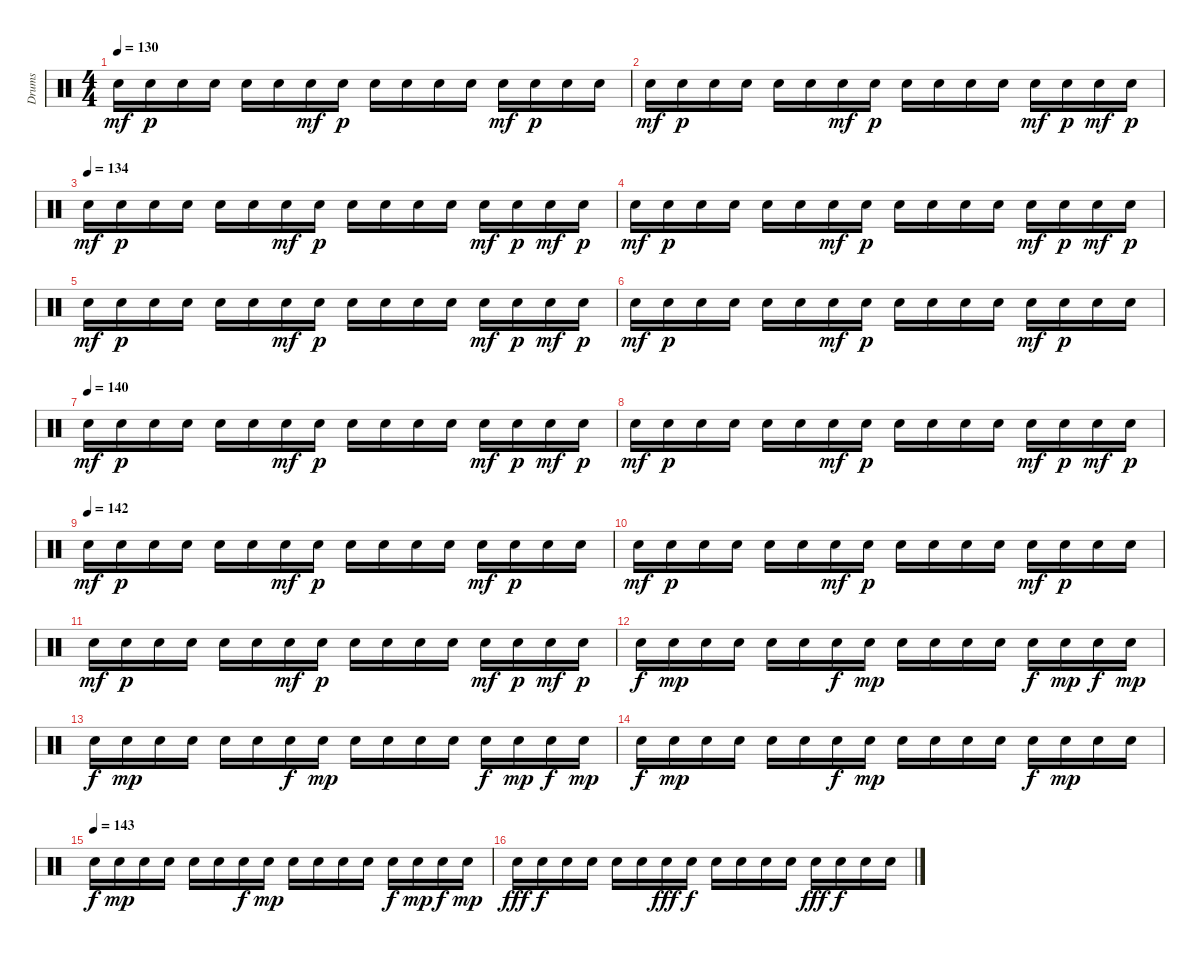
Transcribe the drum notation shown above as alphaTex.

\track ("Drums" "Drums") {instrument percussion}
\staff {score}
\articulation defaults
\ts (4 4)
\tempo 130
\clef neutral
\ks c "Snare (hit) 2".16{dy mf} "Snare (hit) 2".16{dy p} "Snare (hit) 2".16 "Snare (hit) 2".16 "Snare (hit) 2".16 "Snare (hit) 2".16 "Snare (hit) 2".16{dy mf} "Snare (hit) 2".16{dy p} "Snare (hit) 2".16 "Snare (hit) 2".16 "Snare (hit) 2".16 "Snare (hit) 2".16 "Snare (hit) 2".16{dy mf} "Snare (hit) 2".16{dy p} "Snare (hit) 2".16 "Snare (hit) 2".16
|
"Snare (hit) 2".16{dy mf} "Snare (hit) 2".16{dy p} "Snare (hit) 2".16 "Snare (hit) 2".16 "Snare (hit) 2".16 "Snare (hit) 2".16 "Snare (hit) 2".16{dy mf} "Snare (hit) 2".16{dy p} "Snare (hit) 2".16 "Snare (hit) 2".16 "Snare (hit) 2".16 "Snare (hit) 2".16 "Snare (hit) 2".16{dy mf} "Snare (hit) 2".16{dy p} "Snare (hit) 2".16{dy mf} "Snare (hit) 2".16{dy p} |
\tempo (134)
"Snare (hit) 2".16{dy mf} "Snare (hit) 2".16{dy p} "Snare (hit) 2".16 "Snare (hit) 2".16 "Snare (hit) 2".16 "Snare (hit) 2".16 "Snare (hit) 2".16{dy mf} "Snare (hit) 2".16{dy p} "Snare (hit) 2".16 "Snare (hit) 2".16 "Snare (hit) 2".16 "Snare (hit) 2".16 "Snare (hit) 2".16{dy mf} "Snare (hit) 2".16{dy p} "Snare (hit) 2".16{dy mf} "Snare (hit) 2".16{dy p} |
"Snare (hit) 2".16{dy mf} "Snare (hit) 2".16{dy p} "Snare (hit) 2".16 "Snare (hit) 2".16 "Snare (hit) 2".16 "Snare (hit) 2".16 "Snare (hit) 2".16{dy mf} "Snare (hit) 2".16{dy p} "Snare (hit) 2".16 "Snare (hit) 2".16 "Snare (hit) 2".16 "Snare (hit) 2".16 "Snare (hit) 2".16{dy mf} "Snare (hit) 2".16{dy p} "Snare (hit) 2".16{dy mf} "Snare (hit) 2".16{dy p} |
"Snare (hit) 2".16{dy mf} "Snare (hit) 2".16{dy p} "Snare (hit) 2".16 "Snare (hit) 2".16 "Snare (hit) 2".16 "Snare (hit) 2".16 "Snare (hit) 2".16{dy mf} "Snare (hit) 2".16{dy p} "Snare (hit) 2".16 "Snare (hit) 2".16 "Snare (hit) 2".16 "Snare (hit) 2".16 "Snare (hit) 2".16{dy mf} "Snare (hit) 2".16{dy p} "Snare (hit) 2".16{dy mf} "Snare (hit) 2".16{dy p} |
"Snare (hit) 2".16{dy mf} "Snare (hit) 2".16{dy p} "Snare (hit) 2".16 "Snare (hit) 2".16 "Snare (hit) 2".16 "Snare (hit) 2".16 "Snare (hit) 2".16{dy mf} "Snare (hit) 2".16{dy p} "Snare (hit) 2".16 "Snare (hit) 2".16 "Snare (hit) 2".16 "Snare (hit) 2".16 "Snare (hit) 2".16{dy mf} "Snare (hit) 2".16{dy p} "Snare (hit) 2".16 "Snare (hit) 2".16 |
\tempo (140)
"Snare (hit) 2".16{dy mf} "Snare (hit) 2".16{dy p} "Snare (hit) 2".16 "Snare (hit) 2".16 "Snare (hit) 2".16 "Snare (hit) 2".16 "Snare (hit) 2".16{dy mf} "Snare (hit) 2".16{dy p} "Snare (hit) 2".16 "Snare (hit) 2".16 "Snare (hit) 2".16 "Snare (hit) 2".16 "Snare (hit) 2".16{dy mf} "Snare (hit) 2".16{dy p} "Snare (hit) 2".16{dy mf} "Snare (hit) 2".16{dy p} |
"Snare (hit) 2".16{dy mf} "Snare (hit) 2".16{dy p} "Snare (hit) 2".16 "Snare (hit) 2".16 "Snare (hit) 2".16 "Snare (hit) 2".16 "Snare (hit) 2".16{dy mf} "Snare (hit) 2".16{dy p} "Snare (hit) 2".16 "Snare (hit) 2".16 "Snare (hit) 2".16 "Snare (hit) 2".16 "Snare (hit) 2".16{dy mf} "Snare (hit) 2".16{dy p} "Snare (hit) 2".16{dy mf} "Snare (hit) 2".16{dy p} |
\tempo (142)
"Snare (hit) 2".16{dy mf} "Snare (hit) 2".16{dy p} "Snare (hit) 2".16 "Snare (hit) 2".16 "Snare (hit) 2".16 "Snare (hit) 2".16 "Snare (hit) 2".16{dy mf} "Snare (hit) 2".16{dy p} "Snare (hit) 2".16 "Snare (hit) 2".16 "Snare (hit) 2".16 "Snare (hit) 2".16 "Snare (hit) 2".16{dy mf} "Snare (hit) 2".16{dy p} "Snare (hit) 2".16 "Snare (hit) 2".16 |
"Snare (hit) 2".16{dy mf} "Snare (hit) 2".16{dy p} "Snare (hit) 2".16 "Snare (hit) 2".16 "Snare (hit) 2".16 "Snare (hit) 2".16 "Snare (hit) 2".16{dy mf} "Snare (hit) 2".16{dy p} "Snare (hit) 2".16 "Snare (hit) 2".16 "Snare (hit) 2".16 "Snare (hit) 2".16 "Snare (hit) 2".16{dy mf} "Snare (hit) 2".16{dy p} "Snare (hit) 2".16 "Snare (hit) 2".16 |
"Snare (hit) 2".16{dy mf} "Snare (hit) 2".16{dy p} "Snare (hit) 2".16 "Snare (hit) 2".16 "Snare (hit) 2".16 "Snare (hit) 2".16 "Snare (hit) 2".16{dy mf} "Snare (hit) 2".16{dy p} "Snare (hit) 2".16 "Snare (hit) 2".16 "Snare (hit) 2".16 "Snare (hit) 2".16 "Snare (hit) 2".16{dy mf} "Snare (hit) 2".16{dy p} "Snare (hit) 2".16{dy mf} "Snare (hit) 2".16{dy p} |
"Snare (hit) 2".16{dy f} "Snare (hit) 2".16{dy mp} "Snare (hit) 2".16 "Snare (hit) 2".16 "Snare (hit) 2".16 "Snare (hit) 2".16 "Snare (hit) 2".16{dy f} "Snare (hit) 2".16{dy mp} "Snare (hit) 2".16 "Snare (hit) 2".16 "Snare (hit) 2".16 "Snare (hit) 2".16 "Snare (hit) 2".16{dy f} "Snare (hit) 2".16{dy mp} "Snare (hit) 2".16{dy f} "Snare (hit) 2".16{dy mp} |
"Snare (hit) 2".16{dy f} "Snare (hit) 2".16{dy mp} "Snare (hit) 2".16 "Snare (hit) 2".16 "Snare (hit) 2".16 "Snare (hit) 2".16 "Snare (hit) 2".16{dy f} "Snare (hit) 2".16{dy mp} "Snare (hit) 2".16 "Snare (hit) 2".16 "Snare (hit) 2".16 "Snare (hit) 2".16 "Snare (hit) 2".16{dy f} "Snare (hit) 2".16{dy mp} "Snare (hit) 2".16{dy f} "Snare (hit) 2".16{dy mp} |
"Snare (hit) 2".16{dy f} "Snare (hit) 2".16{dy mp} "Snare (hit) 2".16 "Snare (hit) 2".16 "Snare (hit) 2".16 "Snare (hit) 2".16 "Snare (hit) 2".16{dy f} "Snare (hit) 2".16{dy mp} "Snare (hit) 2".16 "Snare (hit) 2".16 "Snare (hit) 2".16 "Snare (hit) 2".16 "Snare (hit) 2".16{dy f} "Snare (hit) 2".16{dy mp} "Snare (hit) 2".16 "Snare (hit) 2".16 |
\tempo (143)
"Snare (hit) 2".16{dy f} "Snare (hit) 2".16{dy mp} "Snare (hit) 2".16 "Snare (hit) 2".16 "Snare (hit) 2".16 "Snare (hit) 2".16 "Snare (hit) 2".16{dy f} "Snare (hit) 2".16{dy mp} "Snare (hit) 2".16 "Snare (hit) 2".16 "Snare (hit) 2".16 "Snare (hit) 2".16 "Snare (hit) 2".16{dy f} "Snare (hit) 2".16{dy mp} "Snare (hit) 2".16{dy f} "Snare (hit) 2".16{dy mp} |
"Snare (hit) 2".16{dy fff volume 10} "Snare (hit) 2".16{dy f} "Snare (hit) 2".16 "Snare (hit) 2".16 "Snare (hit) 2".16 "Snare (hit) 2".16 "Snare (hit) 2".16{dy fff} "Snare (hit) 2".16{dy f} "Snare (hit) 2".16 "Snare (hit) 2".16 "Snare (hit) 2".16 "Snare (hit) 2".16 "Snare (hit) 2".16{dy fff} "Snare (hit) 2".16{dy f} "Snare (hit) 2".16 "Snare (hit) 2".16
